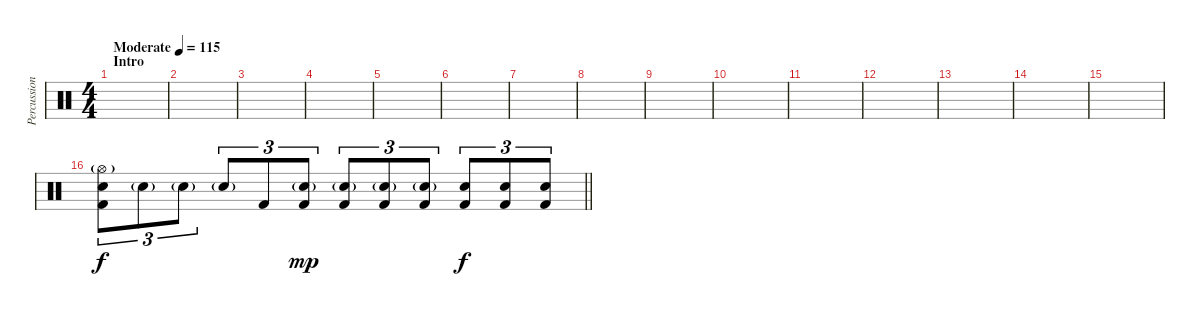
\track ("Percussion" "Percussion") {instrument percussion}
\staff {score}
\articulation defaults
\ts (4 4)
\section ("" "Intro")
\tempo (115 "Moderate")
\clef neutral
\ks c
|
|
|
|
|
|
|
|
|
|
|
|
|
|
|
\barLineRight lightlight
("Hi-Hat (open)"{g} "Electric Snare (hit)" "Kick (hit) 2").8{tu (3 2)} "Electric Snare (hit)"{g}.8{tu (3 2)} "Electric Snare (hit)"{g}.8{tu (3 2)} "Electric Snare (hit)"{g}.8{tu (3 2)} "Kick (hit) 2".8{tu (3 2) dy f} ("Electric Snare (hit)"{g} "Kick (hit) 2").8{tu (3 2) dy mp} ("Electric Snare (hit)"{g} "Kick (hit) 2").8{tu (3 2)} ("Electric Snare (hit)"{g} "Kick (hit) 2").8{tu (3 2)} ("Electric Snare (hit)"{g} "Kick (hit) 2").8{tu (3 2)} ("Electric Snare (hit)" "Kick (hit) 2").8{tu (3 2) dy f} ("Electric Snare (hit)" "Kick (hit) 2").8{tu (3 2)} ("Electric Snare (hit)" "Kick (hit) 2").8{tu (3 2)}
